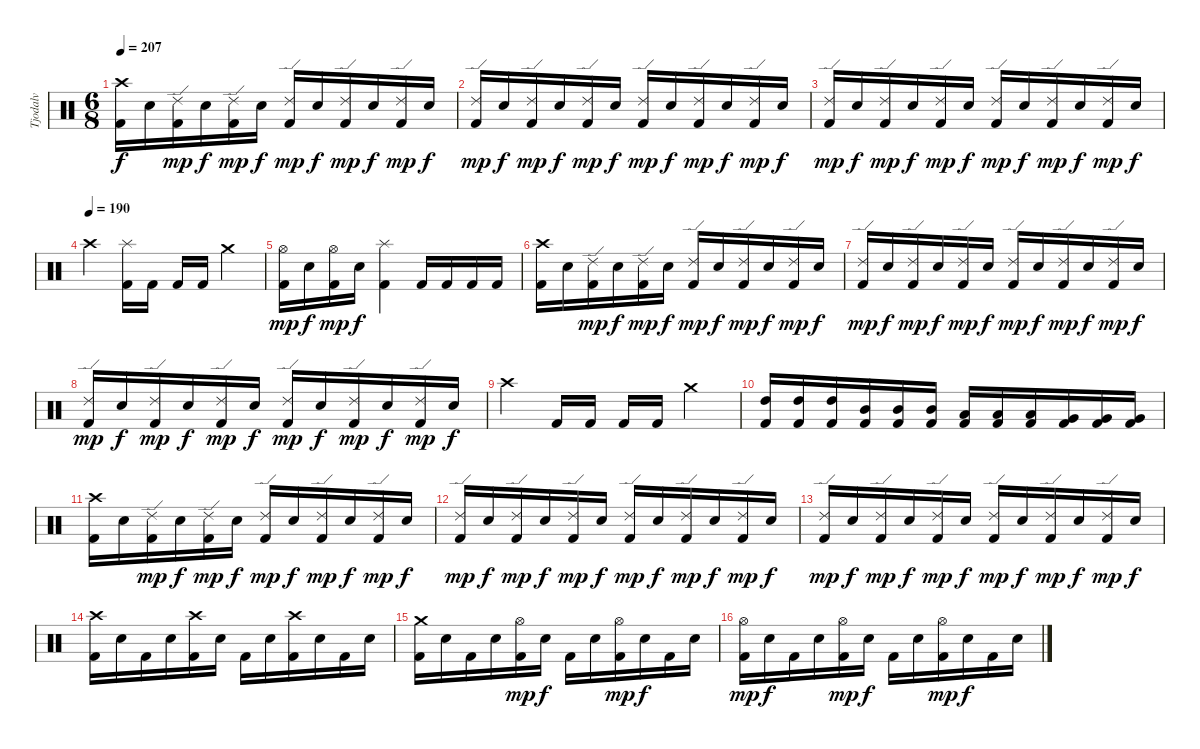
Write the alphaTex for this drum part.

\track ("Tjodalv" "Tjodalv") {instrument percussion}
\staff {score}
\articulation defaults
\ts (6 8)
\tempo 207
\clef neutral
\ks c
("Crash high (hit)" "Kick (hit) 2").16{dy f} "Electric Snare (hit)".16 ("Ride (edge) 2" "Kick (hit) 2").16{dy mp} "Electric Snare (hit)".16{dy f} ("Ride (edge) 2" "Kick (hit) 2").16{dy mp} "Electric Snare (hit)".16{dy f} ("Ride (edge) 2" "Kick (hit) 2").16{dy mp} "Electric Snare (hit)".16{dy f} ("Ride (edge) 2" "Kick (hit) 2").16{dy mp} "Electric Snare (hit)".16{dy f} ("Ride (edge) 2" "Kick (hit) 2").16{dy mp} "Electric Snare (hit)".16{dy f} |
("Ride (edge) 2" "Kick (hit) 2").16{dy mp} "Electric Snare (hit)".16{dy f} ("Ride (edge) 2" "Kick (hit) 2").16{dy mp} "Electric Snare (hit)".16{dy f} ("Ride (edge) 2" "Kick (hit) 2").16{dy mp} "Electric Snare (hit)".16{dy f} ("Ride (edge) 2" "Kick (hit) 2").16{dy mp} "Electric Snare (hit)".16{dy f} ("Ride (edge) 2" "Kick (hit) 2").16{dy mp} "Electric Snare (hit)".16{dy f} ("Ride (edge) 2" "Kick (hit) 2").16{dy mp} "Electric Snare (hit)".16{dy f} |
("Ride (edge) 2" "Kick (hit) 2").16{dy mp} "Electric Snare (hit)".16{dy f} ("Ride (edge) 2" "Kick (hit) 2").16{dy mp} "Electric Snare (hit)".16{dy f} ("Ride (edge) 2" "Kick (hit) 2").16{dy mp} "Electric Snare (hit)".16{dy f} ("Ride (edge) 2" "Kick (hit) 2").16{dy mp} "Electric Snare (hit)".16{dy f} ("Ride (edge) 2" "Kick (hit) 2").16{dy mp} "Electric Snare (hit)".16{dy f} ("Ride (edge) 2" "Kick (hit) 2").16{dy mp} "Electric Snare (hit)".16{dy f} |
\tempo (190)
"Crash high (hit)".4 ("Splash (hit)" "Kick (hit) 2").16 "Kick (hit) 2".16 "Kick (hit) 2".16 "Kick (hit) 2".16 "Crash medium (hit)".4 |
("Hi-Hat (open)" "Kick (hit) 2").16{dy mp} "Electric Snare (hit)".16{dy f} ("Hi-Hat (open)" "Kick (hit) 2").16{dy mp} "Electric Snare (hit)".16{dy f} ("Splash (hit)" "Kick (hit) 2").4 "Kick (hit) 2".16 "Kick (hit) 2".16 "Kick (hit) 2".16 "Kick (hit) 2".16 |
("Crash high (hit)" "Kick (hit) 2").16 "Electric Snare (hit)".16 ("Ride (edge) 2" "Kick (hit) 2").16{dy mp} "Electric Snare (hit)".16{dy f} ("Ride (edge) 2" "Kick (hit) 2").16{dy mp} "Electric Snare (hit)".16{dy f} ("Ride (edge) 2" "Kick (hit) 2").16{dy mp} "Electric Snare (hit)".16{dy f} ("Ride (edge) 2" "Kick (hit) 2").16{dy mp} "Electric Snare (hit)".16{dy f} ("Ride (edge) 2" "Kick (hit) 2").16{dy mp} "Electric Snare (hit)".16{dy f} |
("Ride (edge) 2" "Kick (hit) 2").16{dy mp} "Electric Snare (hit)".16{dy f} ("Ride (edge) 2" "Kick (hit) 2").16{dy mp} "Electric Snare (hit)".16{dy f} ("Ride (edge) 2" "Kick (hit) 2").16{dy mp} "Electric Snare (hit)".16{dy f} ("Ride (edge) 2" "Kick (hit) 2").16{dy mp} "Electric Snare (hit)".16{dy f} ("Ride (edge) 2" "Kick (hit) 2").16{dy mp} "Electric Snare (hit)".16{dy f} ("Ride (edge) 2" "Kick (hit) 2").16{dy mp} "Electric Snare (hit)".16{dy f} |
("Ride (edge) 2" "Kick (hit) 2").16{dy mp} "Electric Snare (hit)".16{dy f} ("Ride (edge) 2" "Kick (hit) 2").16{dy mp} "Electric Snare (hit)".16{dy f} ("Ride (edge) 2" "Kick (hit) 2").16{dy mp} "Electric Snare (hit)".16{dy f} ("Ride (edge) 2" "Kick (hit) 2").16{dy mp} "Electric Snare (hit)".16{dy f} ("Ride (edge) 2" "Kick (hit) 2").16{dy mp} "Electric Snare (hit)".16{dy f} ("Ride (edge) 2" "Kick (hit) 2").16{dy mp} "Electric Snare (hit)".16{dy f} |
"Crash high (hit)".4 "Kick (hit) 2".16 "Kick (hit) 2".16 "Kick (hit) 2".16 "Kick (hit) 2".16 "Crash medium (hit)".4 |
("High Tom (hit)" "Kick (hit) 2").16 ("High Tom (hit)" "Kick (hit) 2").16 ("High Tom (hit)" "Kick (hit) 2").16 ("Mid Tom (hit)" "Kick (hit) 2").16 ("Mid Tom (hit)" "Kick (hit) 2").16 ("Mid Tom (hit)" "Kick (hit) 2").16 ("Low Tom (hit)" "Kick (hit) 2").16 ("Low Tom (hit)" "Kick (hit) 2").16 ("Low Tom (hit)" "Kick (hit) 2").16 ("Very Low Tom (hit)" "Kick (hit) 2").16 ("Very Low Tom (hit)" "Kick (hit) 2").16 ("Very Low Tom (hit)" "Kick (hit) 2").16 |
("Crash high (hit)" "Kick (hit) 2").16 "Electric Snare (hit)".16 ("Ride (edge) 2" "Kick (hit) 2").16{dy mp} "Electric Snare (hit)".16{dy f} ("Ride (edge) 2" "Kick (hit) 2").16{dy mp} "Electric Snare (hit)".16{dy f} ("Ride (edge) 2" "Kick (hit) 2").16{dy mp} "Electric Snare (hit)".16{dy f} ("Ride (edge) 2" "Kick (hit) 2").16{dy mp} "Electric Snare (hit)".16{dy f} ("Ride (edge) 2" "Kick (hit) 2").16{dy mp} "Electric Snare (hit)".16{dy f} |
("Ride (edge) 2" "Kick (hit) 2").16{dy mp} "Electric Snare (hit)".16{dy f} ("Ride (edge) 2" "Kick (hit) 2").16{dy mp} "Electric Snare (hit)".16{dy f} ("Ride (edge) 2" "Kick (hit) 2").16{dy mp} "Electric Snare (hit)".16{dy f} ("Ride (edge) 2" "Kick (hit) 2").16{dy mp} "Electric Snare (hit)".16{dy f} ("Ride (edge) 2" "Kick (hit) 2").16{dy mp} "Electric Snare (hit)".16{dy f} ("Ride (edge) 2" "Kick (hit) 2").16{dy mp} "Electric Snare (hit)".16{dy f} |
("Ride (edge) 2" "Kick (hit) 2").16{dy mp} "Electric Snare (hit)".16{dy f} ("Ride (edge) 2" "Kick (hit) 2").16{dy mp} "Electric Snare (hit)".16{dy f} ("Ride (edge) 2" "Kick (hit) 2").16{dy mp} "Electric Snare (hit)".16{dy f} ("Ride (edge) 2" "Kick (hit) 2").16{dy mp} "Electric Snare (hit)".16{dy f} ("Ride (edge) 2" "Kick (hit) 2").16{dy mp} "Electric Snare (hit)".16{dy f} ("Ride (edge) 2" "Kick (hit) 2").16{dy mp} "Electric Snare (hit)".16{dy f} |
("Crash high (hit)" "Kick (hit) 2").16 "Electric Snare (hit)".16 "Kick (hit) 2".16 "Electric Snare (hit)".16 ("Crash high (hit)" "Kick (hit) 2").16 "Electric Snare (hit)".16 "Kick (hit) 2".16 "Electric Snare (hit)".16 ("Crash high (hit)" "Kick (hit) 2").16 "Electric Snare (hit)".16 "Kick (hit) 2".16 "Electric Snare (hit)".16 |
("Crash medium (hit)" "Kick (hit) 2").16 "Electric Snare (hit)".16 "Kick (hit) 2".16 "Electric Snare (hit)".16 ("Hi-Hat (open)" "Kick (hit) 2").16{dy mp} "Electric Snare (hit)".16{dy f} "Kick (hit) 2".16 "Electric Snare (hit)".16 ("Hi-Hat (open)" "Kick (hit) 2").16{dy mp} "Electric Snare (hit)".16{dy f} "Kick (hit) 2".16 "Electric Snare (hit)".16 |
("Hi-Hat (open)" "Kick (hit) 2").16{dy mp} "Electric Snare (hit)".16{dy f} "Kick (hit) 2".16 "Electric Snare (hit)".16 ("Hi-Hat (open)" "Kick (hit) 2").16{dy mp} "Electric Snare (hit)".16{dy f} "Kick (hit) 2".16 "Electric Snare (hit)".16 ("Hi-Hat (open)" "Kick (hit) 2").16{dy mp} "Electric Snare (hit)".16{dy f} "Kick (hit) 2".16 "Electric Snare (hit)".16
